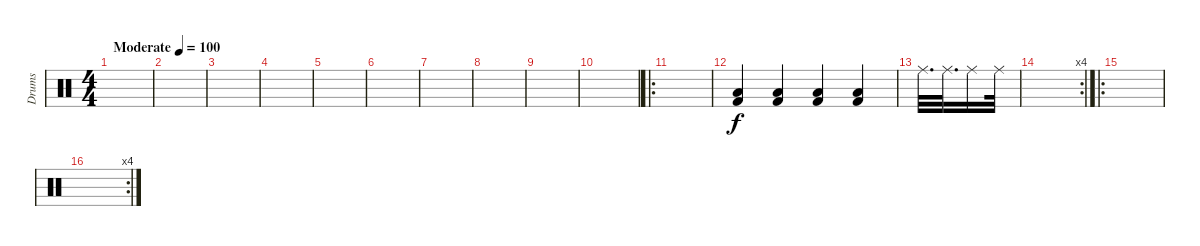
\track ("Drums" "Drums") {instrument percussion}
\staff {score}
\articulation defaults
\ts (4 4)
\tempo (100 "Moderate")
\clef neutral
\ks c
|
|
|
|
|
|
|
|
|
|
\ro
|
("Kick (hit) 2" "Low Floor Tom (hit)").4{volume 10} ("Kick (hit) 2" "Low Floor Tom (hit)").4 ("Kick (hit) 2" "Low Floor Tom (hit)").4 ("Kick (hit) 2" "Low Floor Tom (hit)").4 |
"Ride (middle)".32{d} "Ride (middle)".32{d} "Ride (middle)".16 "Ride (middle)".32 |
\rc 4
|
\ro
|
\rc 4
